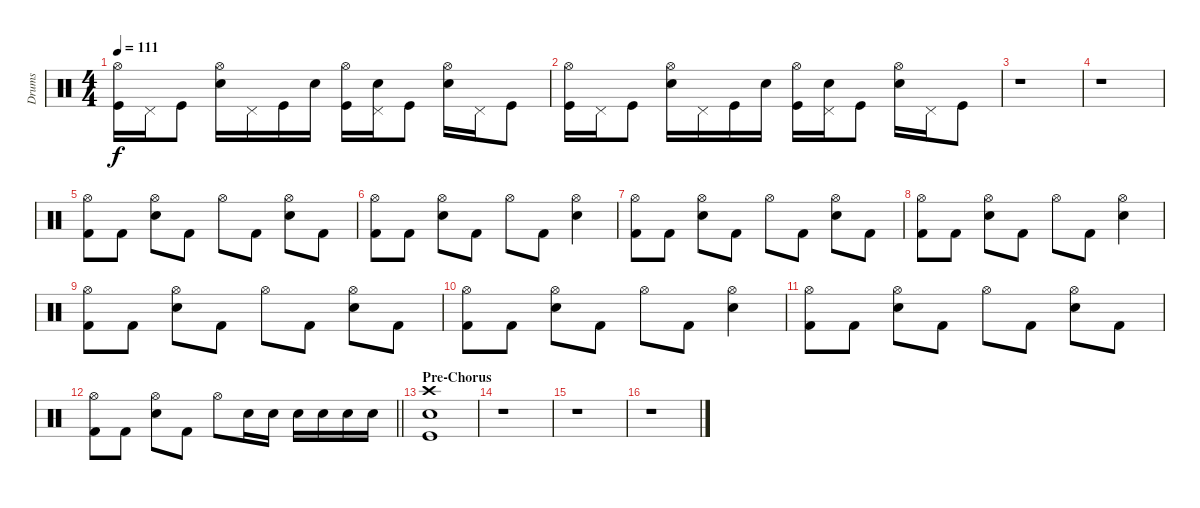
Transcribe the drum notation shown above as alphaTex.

\track ("Drums" "Drums") {instrument percussion}
\staff {score}
\articulation defaults
\ts (4 4)
\tempo 111
\clef neutral
\ks c
("Hi-Hat (open)" "Kick (hit)").16{dy f} "Pedal Hi-Hat (hit)".16 "Kick (hit)".8 ("Hi-Hat (open)" "Electric Snare (hit)").16 "Pedal Hi-Hat (hit)".16 "Kick (hit)".16 "Electric Snare (hit)".16 ("Hi-Hat (open)" "Kick (hit)").16 ("Pedal Hi-Hat (hit)" "Electric Snare (hit)").16 "Kick (hit)".8 ("Hi-Hat (open)" "Electric Snare (hit)").16 "Pedal Hi-Hat (hit)".16 "Kick (hit)".8 |
("Hi-Hat (open)" "Kick (hit)").16 "Pedal Hi-Hat (hit)".16 "Kick (hit)".8 ("Hi-Hat (open)" "Electric Snare (hit)").16 "Pedal Hi-Hat (hit)".16 "Kick (hit)".16 "Electric Snare (hit)".16 ("Hi-Hat (open)" "Kick (hit)").16 ("Pedal Hi-Hat (hit)" "Electric Snare (hit)").16 "Kick (hit)".8 ("Hi-Hat (open)" "Electric Snare (hit)").16 "Pedal Hi-Hat (hit)".16 "Kick (hit)".8 |
r.1 |
r.1 |
("Hi-Hat (open)" "Kick (hit) 2").8 "Kick (hit) 2".8 ("Hi-Hat (open)" "Snare (hit) 2").8 "Kick (hit) 2".8 "Hi-Hat (open)".8 "Kick (hit) 2".8 ("Hi-Hat (open)" "Snare (hit) 2").8 "Kick (hit) 2".8 |
("Hi-Hat (open)" "Kick (hit) 2").8 "Kick (hit) 2".8 ("Hi-Hat (open)" "Snare (hit) 2").8 "Kick (hit) 2".8 "Hi-Hat (open)".8 "Kick (hit) 2".8 ("Hi-Hat (open)" "Snare (hit) 2").4 |
("Hi-Hat (open)" "Kick (hit) 2").8 "Kick (hit) 2".8 ("Hi-Hat (open)" "Snare (hit) 2").8 "Kick (hit) 2".8 "Hi-Hat (open)".8 "Kick (hit) 2".8 ("Hi-Hat (open)" "Snare (hit) 2").8 "Kick (hit) 2".8 |
("Hi-Hat (open)" "Kick (hit) 2").8 "Kick (hit) 2".8 ("Hi-Hat (open)" "Snare (hit) 2").8 "Kick (hit) 2".8 "Hi-Hat (open)".8 "Kick (hit) 2".8 ("Hi-Hat (open)" "Snare (hit) 2").4 |
("Hi-Hat (open)" "Kick (hit) 2").8 "Kick (hit) 2".8 ("Hi-Hat (open)" "Snare (hit) 2").8 "Kick (hit) 2".8 "Hi-Hat (open)".8 "Kick (hit) 2".8 ("Hi-Hat (open)" "Snare (hit) 2").8 "Kick (hit) 2".8 |
("Hi-Hat (open)" "Kick (hit) 2").8 "Kick (hit) 2".8 ("Hi-Hat (open)" "Snare (hit) 2").8 "Kick (hit) 2".8 "Hi-Hat (open)".8 "Kick (hit) 2".8 ("Hi-Hat (open)" "Snare (hit) 2").4 |
("Hi-Hat (open)" "Kick (hit) 2").8 "Kick (hit) 2".8 ("Hi-Hat (open)" "Snare (hit) 2").8 "Kick (hit) 2".8 "Hi-Hat (open)".8 "Kick (hit) 2".8 ("Hi-Hat (open)" "Snare (hit) 2").8 "Kick (hit) 2".8 |
\barLineRight lightlight
("Hi-Hat (open)" "Kick (hit) 2").8 "Kick (hit) 2".8 ("Hi-Hat (open)" "Snare (hit) 2").8 "Kick (hit) 2".8 "Hi-Hat (open)".8 "Snare (hit) 2".16 "Snare (hit) 2".16 "Snare (hit) 2".16 "Snare (hit) 2".16 "Snare (hit) 2".16 "Snare (hit) 2".16 |
\section ("" "Pre-Chorus")
("Crash high (hit)" "Snare (hit) 2" "Kick (hit)").1 |
r.1 |
r.1 |
r.1
